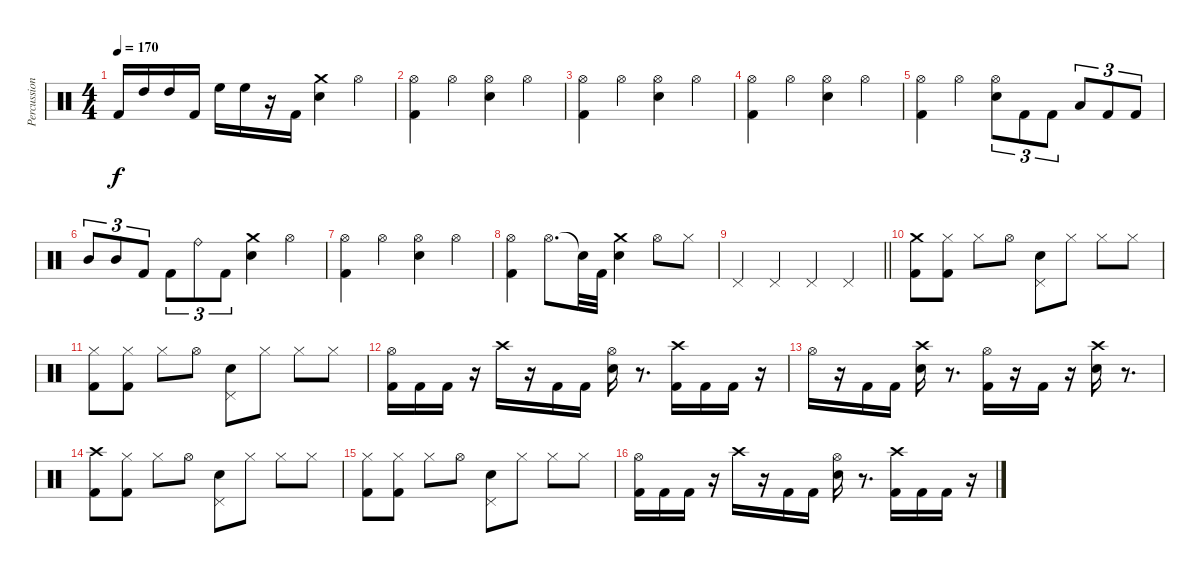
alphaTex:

\track ("Percussion" "Percussion") {instrument percussion}
\staff {score}
\articulation defaults
\ts (4 4)
\tempo 170
\clef neutral
\ks c "Kick (hit) 2".16{dy f} "High Tom (hit)".16 "High Tom (hit)".16 "Kick (hit) 2".16 "High Floor Tom (hit)".16 "High Floor Tom (hit)".16
r.16 "Kick (hit) 2".16 ("Crash medium (hit)" "Electric Snare (hit)").4 "Hi-Hat (open)".4 |
("Kick (hit) 2" "Hi-Hat (open)").4 "Hi-Hat (open)".4 ("Electric Snare (hit)" "Hi-Hat (open)").4 "Hi-Hat (open)".4 |
("Kick (hit) 2" "Hi-Hat (open)").4 "Hi-Hat (open)".4 ("Electric Snare (hit)" "Hi-Hat (open)").4 "Hi-Hat (open)".4 |
("Kick (hit) 2" "Hi-Hat (open)").4 "Hi-Hat (open)".4 ("Electric Snare (hit)" "Hi-Hat (open)").4 "Hi-Hat (open)".4 |
("Kick (hit) 2" "Hi-Hat (open)").4 "Hi-Hat (open)".4 ("Electric Snare (hit)" "Hi-Hat (open)").8{tu (3 2)} "Kick (hit) 2".8{tu (3 2)} "Kick (hit) 2".8{tu (3 2)} "Low Tom (hit)".8{tu (3 2)} "Kick (hit) 2".8{tu (3 2)} "Kick (hit) 2".8{tu (3 2)} |
"Mid Tom (hit)".8{tu (3 2)} "Mid Tom (hit)".8{tu (3 2)} "Kick (hit) 2".8{tu (3 2)} "Kick (hit) 2".8{tu (3 2)} "Ride (bell)".8{tu (3 2)} "Kick (hit) 2".8{tu (3 2)} ("Electric Snare (hit)" "Crash medium (hit)").4 "Hi-Hat (open)".4 |
("Kick (hit) 2" "Hi-Hat (open)").4 "Hi-Hat (open)".4 ("Electric Snare (hit)" "Hi-Hat (open)").4 "Hi-Hat (open)".4 |
("Kick (hit) 2" "Hi-Hat (open)").4 "Hi-Hat (open)".8{d} "Snare (hit)"{t}.32 "Kick (hit) 2".32 ("Electric Snare (hit)" "Crash medium (hit)").4 "Hi-Hat (open)".8 "Hi-Hat (closed)".8 |
\barLineRight lightlight "Pedal Hi-Hat (hit)".4 "Pedal Hi-Hat (hit)".4 "Pedal Hi-Hat (hit)".4 "Pedal Hi-Hat (hit)".4
|
\section ("" "")
("Kick (hit) 2" "Crash medium (hit)").8 ("Kick (hit) 2" "Hi-Hat (closed)").8 "Hi-Hat (closed)".8 "Hi-Hat (open)".8 ("Pedal Hi-Hat (hit)" "Electric Snare (hit)").8 "Hi-Hat (closed)".8 "Hi-Hat (closed)".8 "Hi-Hat (closed)".8 |
("Hi-Hat (closed)" "Kick (hit) 2").8 ("Kick (hit) 2" "Hi-Hat (closed)").8 "Hi-Hat (closed)".8 "Hi-Hat (open)".8 ("Pedal Hi-Hat (hit)" "Electric Snare (hit)").8 "Hi-Hat (closed)".8 "Hi-Hat (closed)".8 "Hi-Hat (closed)".8 |
("Hi-Hat (open)" "Kick (hit) 2").16 "Kick (hit) 2".16 "Kick (hit) 2".16 r.16 "Crash high (hit)".16 r.16 "Kick (hit) 2".16 "Kick (hit) 2".16 ("Hi-Hat (open)" "Electric Snare (hit)").16 r.8{d} ("Kick (hit) 2" "Crash high (hit)").16 "Kick (hit) 2".16 "Kick (hit) 2".16 r.16 |
"Hi-Hat (open)".16 r.16 "Kick (hit) 2".16 "Kick (hit) 2".16 ("Electric Snare (hit)" "Crash high (hit)").16 r.8{d} ("Kick (hit) 2" "Hi-Hat (open)").16 r.16 "Kick (hit) 2".16 r.16 ("Electric Snare (hit)" "Crash high (hit)").16 r.8{d} |
("Kick (hit) 2" "Crash high (hit)").8 ("Kick (hit) 2" "Hi-Hat (closed)").8 "Hi-Hat (closed)".8 "Hi-Hat (open)".8 ("Pedal Hi-Hat (hit)" "Electric Snare (hit)").8 "Hi-Hat (closed)".8 "Hi-Hat (closed)".8 "Hi-Hat (closed)".8 |
("Hi-Hat (closed)" "Kick (hit) 2").8 ("Kick (hit) 2" "Hi-Hat (closed)").8 "Hi-Hat (closed)".8 "Hi-Hat (open)".8 ("Pedal Hi-Hat (hit)" "Electric Snare (hit)").8 "Hi-Hat (closed)".8 "Hi-Hat (closed)".8 "Hi-Hat (closed)".8 |
("Hi-Hat (open)" "Kick (hit) 2").16 "Kick (hit) 2".16 "Kick (hit) 2".16 r.16 "Crash high (hit)".16 r.16 "Kick (hit) 2".16 "Kick (hit) 2".16 ("Hi-Hat (open)" "Electric Snare (hit)").16 r.8{d} ("Kick (hit) 2" "Crash high (hit)").16 "Kick (hit) 2".16 "Kick (hit) 2".16 r.16
